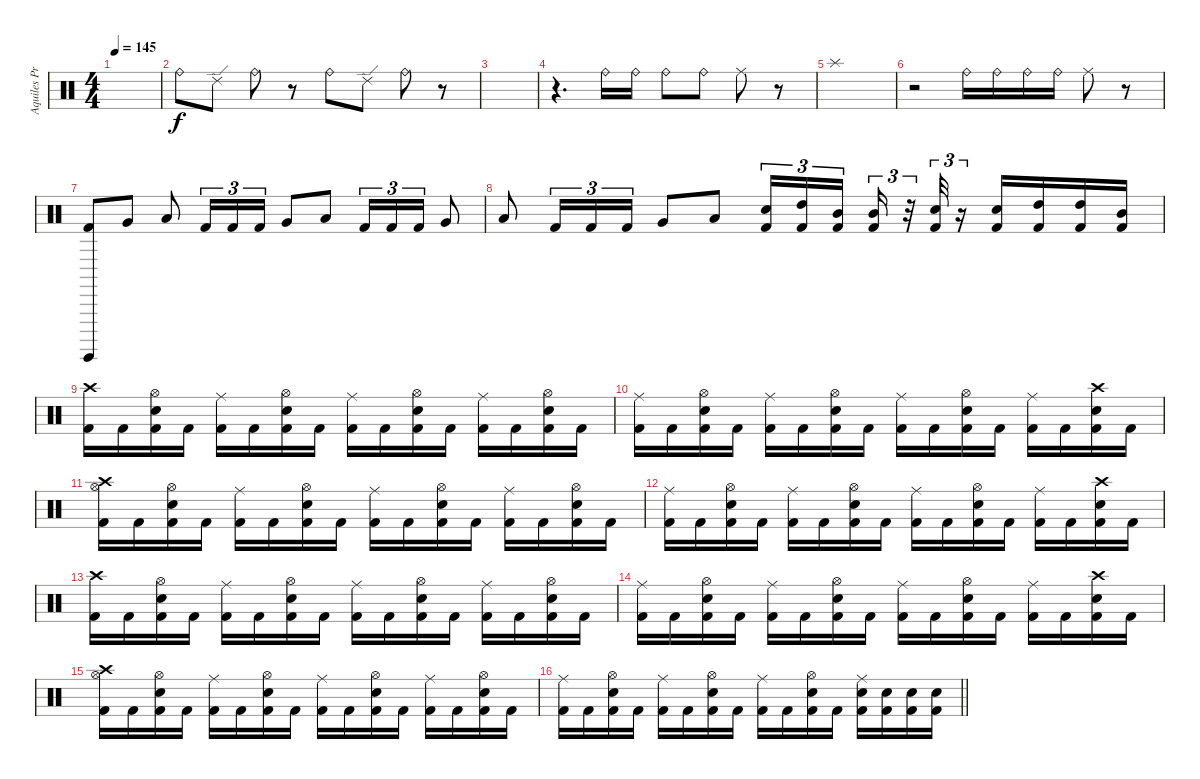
\track ("Aquiles Priester" "Aquiles Pr") {instrument percussion}
\staff {score}
\articulation defaults
\ts (4 4)
\tempo 145
\clef neutral
\ks c
|
"Ride (bell)".8 "Ride (edge) 2".8 "Ride (bell)".8 r.8 "Ride (bell)".8 "Ride (edge) 2".8 "Ride (bell)".8 r.8 |
|
r.4{d} "Ride (bell)".16 "Ride (bell)".16 "Ride (bell)".8 "Ride (bell)".8 "Ride (middle)".8 r.8 |
"Splash (hit)".1 |
r.2 "Ride (bell)".16 "Ride (bell)".16 "Ride (bell)".16 "Ride (bell)".16 "Ride (middle)".8 r.8 |
("Surdo (hit)" "Kick (hit) 2").8 "Very Low Tom (hit)".8 "Low Tom (hit)".8 "Kick (hit) 2".16{tu (3 2)} "Kick (hit) 2".16{tu (3 2)} "Kick (hit) 2".16{tu (3 2)} "Very Low Tom (hit)".8 "Low Tom (hit)".8 "Kick (hit) 2".16{tu (3 2)} "Kick (hit) 2".16{tu (3 2)} "Kick (hit) 2".16{tu (3 2)} "Very Low Tom (hit)".8 |
"Low Tom (hit)".8 "Kick (hit) 2".16{tu (3 2)} "Kick (hit) 2".16{tu (3 2)} "Kick (hit) 2".16{tu (3 2)} "Very Low Tom (hit)".8 "Low Tom (hit)".8 ("Electric Snare (hit)" "Kick (hit) 2").16{tu (3 2)} ("High Tom (hit)" "Kick (hit) 2").16{tu (3 2)} ("Mid Tom (hit)" "Kick (hit) 2").16{tu (3 2)} ("Mid Tom (hit)" "Kick (hit) 2").16{tu (3 2)} r.32{tu (3 2)} ("Electric Snare (hit)" "Kick (hit) 2").32{tu (3 2)} r.16{tu (3 2)} ("Electric Snare (hit)" "Kick (hit) 2").16 ("High Tom (hit)" "Kick (hit) 2").16 ("High Tom (hit)" "Kick (hit) 2").16 ("Mid Tom (hit)" "Kick (hit) 2").16 |
("Crash high (hit)" "Kick (hit) 2").16 "Kick (hit) 2".16 ("Hi-Hat (open)" "Electric Snare (hit)" "Kick (hit) 2").16 "Kick (hit) 2".16 ("Ride (middle)" "Kick (hit) 2").16 "Kick (hit) 2".16 ("Hi-Hat (open)" "Electric Snare (hit)" "Kick (hit) 2").16 "Kick (hit) 2".16 ("Ride (middle)" "Kick (hit) 2").16 "Kick (hit) 2".16 ("Hi-Hat (open)" "Electric Snare (hit)" "Kick (hit) 2").16 "Kick (hit) 2".16 ("Ride (middle)" "Kick (hit) 2").16 "Kick (hit) 2".16 ("Hi-Hat (open)" "Electric Snare (hit)" "Kick (hit) 2").16 "Kick (hit) 2".16 |
("Ride (middle)" "Kick (hit) 2").16 "Kick (hit) 2".16 ("Hi-Hat (open)" "Electric Snare (hit)" "Kick (hit) 2").16 "Kick (hit) 2".16 ("Ride (middle)" "Kick (hit) 2").16 "Kick (hit) 2".16 ("Hi-Hat (open)" "Electric Snare (hit)" "Kick (hit) 2").16 "Kick (hit) 2".16 ("Ride (middle)" "Kick (hit) 2").16 "Kick (hit) 2".16 ("Hi-Hat (open)" "Electric Snare (hit)" "Kick (hit) 2").16 "Kick (hit) 2".16 ("Ride (middle)" "Kick (hit) 2").16 "Kick (hit) 2".16 ("Crash high (hit)" "Electric Snare (hit)" "Kick (hit) 2").16 "Kick (hit) 2".16 |
("Crash high (hit)" "Hi-Hat (open)" "Kick (hit) 2").16 "Kick (hit) 2".16 ("Hi-Hat (open)" "Electric Snare (hit)" "Kick (hit) 2").16 "Kick (hit) 2".16 ("Ride (middle)" "Kick (hit) 2").16 "Kick (hit) 2".16 ("Hi-Hat (open)" "Electric Snare (hit)" "Kick (hit) 2").16 "Kick (hit) 2".16 ("Ride (middle)" "Kick (hit) 2").16 "Kick (hit) 2".16 ("Hi-Hat (open)" "Electric Snare (hit)" "Kick (hit) 2").16 "Kick (hit) 2".16 ("Ride (middle)" "Kick (hit) 2").16 "Kick (hit) 2".16 ("Hi-Hat (open)" "Electric Snare (hit)" "Kick (hit) 2").16 "Kick (hit) 2".16 |
("Ride (middle)" "Kick (hit) 2").16 "Kick (hit) 2".16 ("Hi-Hat (open)" "Electric Snare (hit)" "Kick (hit) 2").16 "Kick (hit) 2".16 ("Ride (middle)" "Kick (hit) 2").16 "Kick (hit) 2".16 ("Hi-Hat (open)" "Electric Snare (hit)" "Kick (hit) 2").16 "Kick (hit) 2".16 ("Ride (middle)" "Kick (hit) 2").16 "Kick (hit) 2".16 ("Hi-Hat (open)" "Electric Snare (hit)" "Kick (hit) 2").16 "Kick (hit) 2".16 ("Ride (middle)" "Kick (hit) 2").16 "Kick (hit) 2".16 ("Crash high (hit)" "Electric Snare (hit)" "Kick (hit) 2").16 "Kick (hit) 2".16 |
("Crash high (hit)" "Kick (hit) 2").16 "Kick (hit) 2".16 ("Hi-Hat (open)" "Electric Snare (hit)" "Kick (hit) 2").16 "Kick (hit) 2".16 ("Ride (middle)" "Kick (hit) 2").16 "Kick (hit) 2".16 ("Hi-Hat (open)" "Electric Snare (hit)" "Kick (hit) 2").16 "Kick (hit) 2".16 ("Ride (middle)" "Kick (hit) 2").16 "Kick (hit) 2".16 ("Hi-Hat (open)" "Electric Snare (hit)" "Kick (hit) 2").16 "Kick (hit) 2".16 ("Ride (middle)" "Kick (hit) 2").16 "Kick (hit) 2".16 ("Hi-Hat (open)" "Electric Snare (hit)" "Kick (hit) 2").16 "Kick (hit) 2".16 |
("Ride (middle)" "Kick (hit) 2").16 "Kick (hit) 2".16 ("Hi-Hat (open)" "Electric Snare (hit)" "Kick (hit) 2").16 "Kick (hit) 2".16 ("Ride (middle)" "Kick (hit) 2").16 "Kick (hit) 2".16 ("Hi-Hat (open)" "Electric Snare (hit)" "Kick (hit) 2").16 "Kick (hit) 2".16 ("Ride (middle)" "Kick (hit) 2").16 "Kick (hit) 2".16 ("Hi-Hat (open)" "Electric Snare (hit)" "Kick (hit) 2").16 "Kick (hit) 2".16 ("Ride (middle)" "Kick (hit) 2").16 "Kick (hit) 2".16 ("Crash high (hit)" "Electric Snare (hit)" "Kick (hit) 2").16 "Kick (hit) 2".16 |
("Crash high (hit)" "Hi-Hat (open)" "Kick (hit) 2").16 "Kick (hit) 2".16 ("Hi-Hat (open)" "Electric Snare (hit)" "Kick (hit) 2").16 "Kick (hit) 2".16 ("Ride (middle)" "Kick (hit) 2").16 "Kick (hit) 2".16 ("Hi-Hat (open)" "Electric Snare (hit)" "Kick (hit) 2").16 "Kick (hit) 2".16 ("Ride (middle)" "Kick (hit) 2").16 "Kick (hit) 2".16 ("Hi-Hat (open)" "Electric Snare (hit)" "Kick (hit) 2").16 "Kick (hit) 2".16 ("Ride (middle)" "Kick (hit) 2").16 "Kick (hit) 2".16 ("Hi-Hat (open)" "Electric Snare (hit)" "Kick (hit) 2").16 "Kick (hit) 2".16 |
\barLineRight lightlight
("Ride (middle)" "Kick (hit) 2").16 "Kick (hit) 2".16 ("Hi-Hat (open)" "Electric Snare (hit)" "Kick (hit) 2").16 "Kick (hit) 2".16 ("Ride (middle)" "Kick (hit) 2").16 "Kick (hit) 2".16 ("Hi-Hat (open)" "Electric Snare (hit)" "Kick (hit) 2").16 "Kick (hit) 2".16 ("Ride (middle)" "Kick (hit) 2").16 "Kick (hit) 2".16 ("Hi-Hat (open)" "Electric Snare (hit)" "Kick (hit) 2").16 "Kick (hit) 2".16 ("Ride (middle)" "Electric Snare (hit)" "Kick (hit) 2").16 ("Electric Snare (hit)" "Kick (hit) 2").16 ("Electric Snare (hit)" "Kick (hit) 2").16 ("Electric Snare (hit)" "Kick (hit) 2").16
